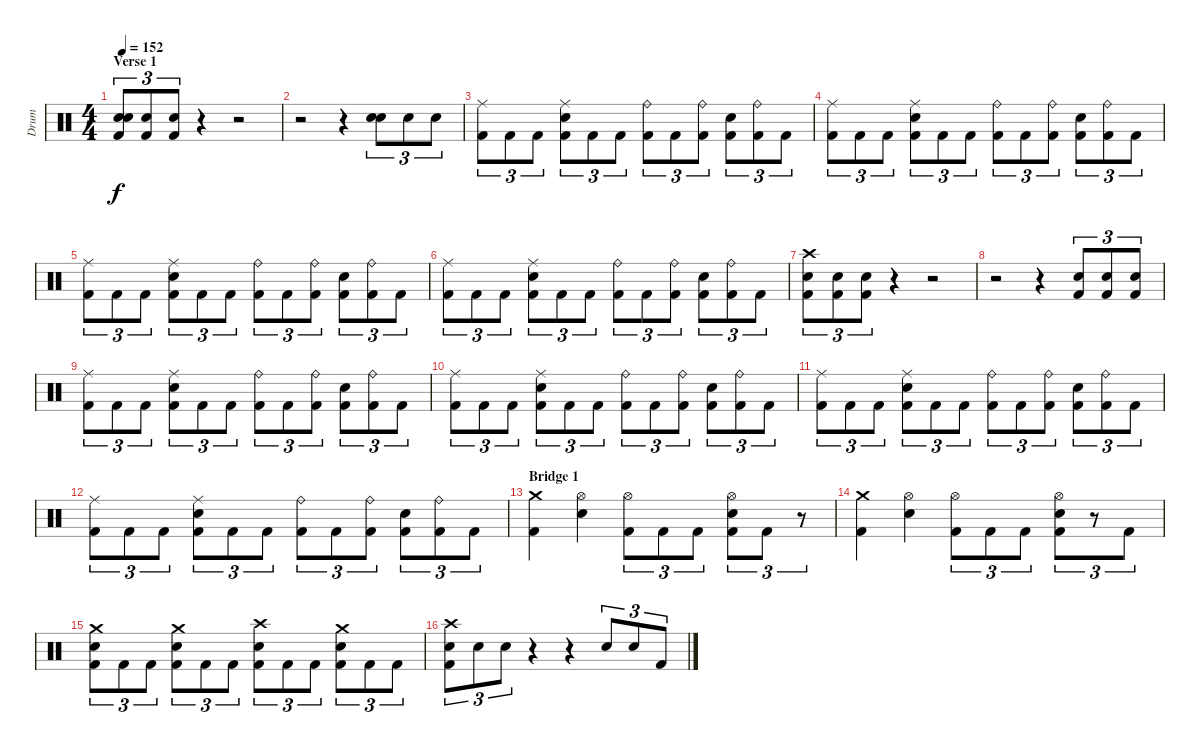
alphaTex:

\track ("Drum" "Drum") {instrument percussion}
\staff {score}
\articulation defaults
\ts (4 4)
\section ("" "Verse 1")
\tempo 152
\clef neutral
\ks c
("Kick (hit) 2" "Electric Snare (hit)" "Electric Snare (hit)").8{tu (3 2) dy f} ("Electric Snare (hit)" "Kick (hit) 2").8{tu (3 2)} ("Kick (hit) 2" "Electric Snare (hit)").8{tu (3 2)} r.4 r.2 |
r.2 r.4 ("Electric Snare (hit)" "Electric Snare (hit)").8{tu (3 2)} "Electric Snare (hit)".8{tu (3 2)} "Electric Snare (hit)".8{tu (3 2)} |
("Kick (hit) 2" "Ride (middle)").8{tu (3 2)} "Kick (hit) 2".8{tu (3 2)} "Kick (hit) 2".8{tu (3 2)} ("Electric Snare (hit)" "Kick (hit) 2" "Ride (middle)").8{tu (3 2)} "Kick (hit) 2".8{tu (3 2)} "Kick (hit) 2".8{tu (3 2)} ("Kick (hit) 2" "Ride (bell)").8{tu (3 2)} "Kick (hit) 2".8{tu (3 2)} ("Kick (hit) 2" "Ride (bell)").8{tu (3 2)} ("Electric Snare (hit)" "Kick (hit) 2").8{tu (3 2)} ("Kick (hit) 2" "Ride (bell)").8{tu (3 2)} "Kick (hit) 2".8{tu (3 2)} |
("Ride (middle)" "Kick (hit) 2").8{tu (3 2)} "Kick (hit) 2".8{tu (3 2)} "Kick (hit) 2".8{tu (3 2)} ("Ride (middle)" "Electric Snare (hit)" "Kick (hit) 2").8{tu (3 2)} "Kick (hit) 2".8{tu (3 2)} "Kick (hit) 2".8{tu (3 2)} ("Kick (hit) 2" "Ride (bell)").8{tu (3 2)} "Kick (hit) 2".8{tu (3 2)} ("Kick (hit) 2" "Ride (bell)").8{tu (3 2)} ("Electric Snare (hit)" "Kick (hit) 2").8{tu (3 2)} ("Kick (hit) 2" "Ride (bell)").8{tu (3 2)} "Kick (hit) 2".8{tu (3 2)} |
("Ride (middle)" "Kick (hit) 2").8{tu (3 2)} "Kick (hit) 2".8{tu (3 2)} "Kick (hit) 2".8{tu (3 2)} ("Electric Snare (hit)" "Kick (hit) 2" "Ride (middle)").8{tu (3 2)} "Kick (hit) 2".8{tu (3 2)} "Kick (hit) 2".8{tu (3 2)} ("Kick (hit) 2" "Ride (bell)").8{tu (3 2)} "Kick (hit) 2".8{tu (3 2)} ("Kick (hit) 2" "Ride (bell)").8{tu (3 2)} ("Electric Snare (hit)" "Kick (hit) 2").8{tu (3 2)} ("Kick (hit) 2" "Ride (bell)").8{tu (3 2)} "Kick (hit) 2".8{tu (3 2)} |
("Ride (middle)" "Kick (hit) 2").8{tu (3 2)} "Kick (hit) 2".8{tu (3 2)} "Kick (hit) 2".8{tu (3 2)} ("Kick (hit) 2" "Electric Snare (hit)" "Ride (middle)").8{tu (3 2)} "Kick (hit) 2".8{tu (3 2)} "Kick (hit) 2".8{tu (3 2)} ("Kick (hit) 2" "Ride (bell)").8{tu (3 2)} "Kick (hit) 2".8{tu (3 2)} ("Kick (hit) 2" "Ride (bell)").8{tu (3 2)} ("Electric Snare (hit)" "Kick (hit) 2").8{tu (3 2)} ("Kick (hit) 2" "Ride (bell)").8{tu (3 2)} "Kick (hit) 2".8{tu (3 2)} |
\section ("" "")
("Crash high (hit)" "Kick (hit) 2" "Electric Snare (hit)").8{tu (3 2)} ("Kick (hit) 2" "Electric Snare (hit)").8{tu (3 2)} ("Kick (hit) 2" "Electric Snare (hit)").8{tu (3 2)} r.4 r.2 |
r.2 r.4 ("Electric Snare (hit)" "Kick (hit) 2").8{tu (3 2)} ("Electric Snare (hit)" "Kick (hit) 2").8{tu (3 2)} ("Electric Snare (hit)" "Kick (hit) 2").8{tu (3 2)} |
("Ride (middle)" "Kick (hit) 2").8{tu (3 2)} "Kick (hit) 2".8{tu (3 2)} "Kick (hit) 2".8{tu (3 2)} ("Ride (middle)" "Electric Snare (hit)" "Kick (hit) 2").8{tu (3 2)} "Kick (hit) 2".8{tu (3 2)} "Kick (hit) 2".8{tu (3 2)} ("Ride (bell)" "Kick (hit) 2").8{tu (3 2)} "Kick (hit) 2".8{tu (3 2)} ("Ride (bell)" "Kick (hit) 2").8{tu (3 2)} ("Electric Snare (hit)" "Kick (hit) 2").8{tu (3 2)} ("Ride (bell)" "Kick (hit) 2").8{tu (3 2)} "Kick (hit) 2".8{tu (3 2)} |
("Ride (middle)" "Kick (hit) 2").8{tu (3 2)} "Kick (hit) 2".8{tu (3 2)} "Kick (hit) 2".8{tu (3 2)} ("Electric Snare (hit)" "Kick (hit) 2" "Ride (middle)").8{tu (3 2)} "Kick (hit) 2".8{tu (3 2)} "Kick (hit) 2".8{tu (3 2)} ("Kick (hit) 2" "Ride (bell)").8{tu (3 2)} "Kick (hit) 2".8{tu (3 2)} ("Kick (hit) 2" "Ride (bell)").8{tu (3 2)} ("Electric Snare (hit)" "Kick (hit) 2").8{tu (3 2)} ("Kick (hit) 2" "Ride (bell)").8{tu (3 2)} "Kick (hit) 2".8{tu (3 2)} |
("Kick (hit) 2" "Ride (middle)").8{tu (3 2)} "Kick (hit) 2".8{tu (3 2)} "Kick (hit) 2".8{tu (3 2)} ("Electric Snare (hit)" "Ride (middle)" "Kick (hit) 2").8{tu (3 2)} "Kick (hit) 2".8{tu (3 2)} "Kick (hit) 2".8{tu (3 2)} ("Kick (hit) 2" "Ride (bell)").8{tu (3 2)} "Kick (hit) 2".8{tu (3 2)} ("Kick (hit) 2" "Ride (bell)").8{tu (3 2)} ("Electric Snare (hit)" "Kick (hit) 2").8{tu (3 2)} ("Kick (hit) 2" "Ride (bell)").8{tu (3 2)} "Kick (hit) 2".8{tu (3 2)} |
("Kick (hit) 2" "Ride (middle)").8{tu (3 2)} "Kick (hit) 2".8{tu (3 2)} "Kick (hit) 2".8{tu (3 2)} ("Ride (middle)" "Kick (hit) 2" "Electric Snare (hit)").8{tu (3 2)} "Kick (hit) 2".8{tu (3 2)} "Kick (hit) 2".8{tu (3 2)} ("Kick (hit) 2" "Ride (bell)").8{tu (3 2)} "Kick (hit) 2".8{tu (3 2)} ("Kick (hit) 2" "Ride (bell)").8{tu (3 2)} ("Electric Snare (hit)" "Kick (hit) 2").8{tu (3 2)} ("Kick (hit) 2" "Ride (bell)").8{tu (3 2)} "Kick (hit) 2".8{tu (3 2)} |
\section ("" "Bridge 1")
("Crash medium (hit)" "Kick (hit) 2").4 ("Hi-Hat (open)" "Electric Snare (hit)").4 ("Kick (hit) 2" "Hi-Hat (open)").8{tu (3 2)} "Kick (hit) 2".8{tu (3 2)} "Kick (hit) 2".8{tu (3 2)} ("Electric Snare (hit)" "Hi-Hat (open)" "Kick (hit) 2").8{tu (3 2)} "Kick (hit) 2".8{tu (3 2)} r.8{tu (3 2)} |
("Kick (hit) 2" "Crash medium (hit)").4 ("Electric Snare (hit)" "Hi-Hat (open)").4 ("Hi-Hat (open)" "Kick (hit) 2").8{tu (3 2)} "Kick (hit) 2".8{tu (3 2)} "Kick (hit) 2".8{tu (3 2)} ("Kick (hit) 2" "Hi-Hat (open)" "Electric Snare (hit)").8{tu (3 2)} r.8{tu (3 2)} "Kick (hit) 2".8{tu (3 2)} |
("Electric Snare (hit)" "Crash medium (hit)" "Kick (hit) 2").8{tu (3 2)} "Kick (hit) 2".8{tu (3 2)} "Kick (hit) 2".8{tu (3 2)} ("Kick (hit) 2" "Electric Snare (hit)" "Crash medium (hit)").8{tu (3 2)} "Kick (hit) 2".8{tu (3 2)} "Kick (hit) 2".8{tu (3 2)} ("Kick (hit) 2" "Electric Snare (hit)" "Crash high (hit)").8{tu (3 2)} "Kick (hit) 2".8{tu (3 2)} "Kick (hit) 2".8{tu (3 2)} ("Kick (hit) 2" "Crash medium (hit)" "Electric Snare (hit)").8{tu (3 2)} "Kick (hit) 2".8{tu (3 2)} "Kick (hit) 2".8{tu (3 2)} |
("Kick (hit) 2" "Electric Snare (hit)" "Crash high (hit)").8{tu (3 2)} "Electric Snare (hit)".8{tu (3 2)} "Electric Snare (hit)".8{tu (3 2)} r.4 r.4 "Electric Snare (hit)".8{tu (3 2)} "Electric Snare (hit)".8{tu (3 2)} "Kick (hit) 2".8{tu (3 2)}
